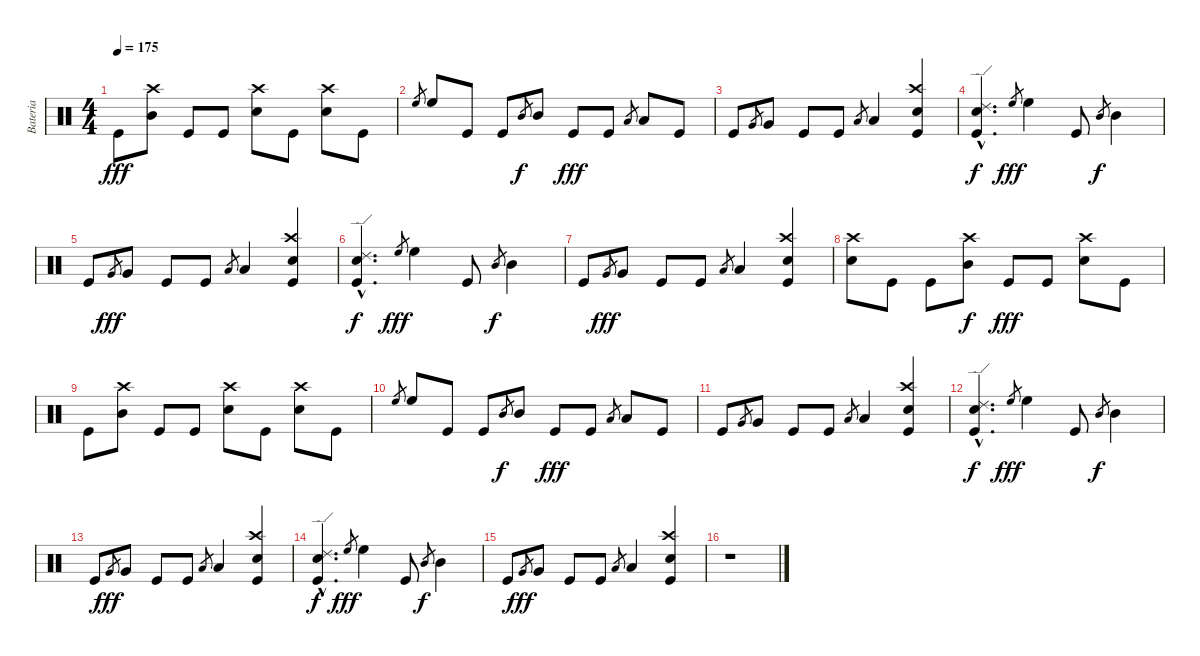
\track ("Bateria" "Bateria") {instrument percussion}
\staff {score}
\articulation defaults
\ts (4 4)
\tempo 175
\clef neutral
\ks c "Kick (hit)".8{dy fff}
("Crash high (hit)" "Mid Tom (hit)").8 "Kick (hit)".8 "Kick (hit)".8 ("Crash high (hit)" "Electric Snare (hit)").8 "Kick (hit)".8 ("Crash high (hit)" "Electric Snare (hit)").8 "Kick (hit)".8 |
"High Floor Tom (hit)".8{gr} "High Floor Tom (hit)".8 "Kick (hit)".8 "Kick (hit)".8 "Mid Tom (hit)".8{gr dy f} "Mid Tom (hit)".8 "Kick (hit)".8{dy fff} "Kick (hit)".8 "Low Tom (hit)".8{gr} "Low Tom (hit)".8 "Kick (hit)".8 |
"Kick (hit)".8 "Very Low Tom (hit)".8{gr} "Very Low Tom (hit)".8 "Kick (hit)".8 "Kick (hit)".8 "Low Floor Tom (hit)".8{gr} "Low Floor Tom (hit)".4 ("Crash high (hit)" "Electric Snare (hit)" "Kick (hit)").4 |
("Ride (edge) 2"{hac} "Electric Snare (hit)"{hac} "Kick (hit)"{hac}).4{d dy f} "High Floor Tom (hit)".8{gr dy fff} "High Floor Tom (hit)".4 "Kick (hit)".8 "Mid Tom (hit)".8{gr dy f} "Mid Tom (hit)".4 |
"Kick (hit)".8 "Very Low Tom (hit)".8{gr dy fff} "Very Low Tom (hit)".8 "Kick (hit)".8 "Kick (hit)".8 "Low Floor Tom (hit)".8{gr} "Low Floor Tom (hit)".4 ("Crash high (hit)" "Electric Snare (hit)" "Kick (hit)").4 |
("Ride (edge) 2"{hac} "Electric Snare (hit)"{hac} "Kick (hit)"{hac}).4{d dy f} "High Floor Tom (hit)".8{gr dy fff} "High Floor Tom (hit)".4 "Kick (hit)".8 "Mid Tom (hit)".8{gr dy f} "Mid Tom (hit)".4 |
"Kick (hit)".8 "Very Low Tom (hit)".8{gr dy fff} "Very Low Tom (hit)".8 "Kick (hit)".8 "Kick (hit)".8 "Low Floor Tom (hit)".8{gr} "Low Floor Tom (hit)".4 ("Crash high (hit)" "Electric Snare (hit)" "Kick (hit)").4 |
("Crash high (hit)" "Electric Snare (hit)").8 "Kick (hit)".8 "Kick (hit)".8 ("Crash high (hit)" "Mid Tom (hit)").8{dy f} "Kick (hit)".8{dy fff} "Kick (hit)".8 ("Crash high (hit)" "Electric Snare (hit)").8 "Kick (hit)".8 |
"Kick (hit)".8 ("Crash high (hit)" "Mid Tom (hit)").8 "Kick (hit)".8 "Kick (hit)".8 ("Crash high (hit)" "Electric Snare (hit)").8 "Kick (hit)".8 ("Crash high (hit)" "Electric Snare (hit)").8 "Kick (hit)".8 |
"High Floor Tom (hit)".8{gr} "High Floor Tom (hit)".8 "Kick (hit)".8 "Kick (hit)".8 "Mid Tom (hit)".8{gr dy f} "Mid Tom (hit)".8 "Kick (hit)".8{dy fff} "Kick (hit)".8 "Low Tom (hit)".8{gr} "Low Tom (hit)".8 "Kick (hit)".8 |
"Kick (hit)".8 "Very Low Tom (hit)".8{gr} "Very Low Tom (hit)".8 "Kick (hit)".8 "Kick (hit)".8 "Low Floor Tom (hit)".8{gr} "Low Floor Tom (hit)".4 ("Crash high (hit)" "Electric Snare (hit)" "Kick (hit)").4 |
("Ride (edge) 2"{hac} "Electric Snare (hit)"{hac} "Kick (hit)"{hac}).4{d dy f} "High Floor Tom (hit)".8{gr dy fff} "High Floor Tom (hit)".4 "Kick (hit)".8 "Mid Tom (hit)".8{gr dy f} "Mid Tom (hit)".4 |
"Kick (hit)".8 "Very Low Tom (hit)".8{gr dy fff} "Very Low Tom (hit)".8 "Kick (hit)".8 "Kick (hit)".8 "Low Floor Tom (hit)".8{gr} "Low Floor Tom (hit)".4 ("Crash high (hit)" "Electric Snare (hit)" "Kick (hit)").4 |
("Ride (edge) 2"{hac} "Electric Snare (hit)"{hac} "Kick (hit)"{hac}).4{d dy f} "High Floor Tom (hit)".8{gr dy fff} "High Floor Tom (hit)".4 "Kick (hit)".8 "Mid Tom (hit)".8{gr dy f} "Mid Tom (hit)".4 |
"Kick (hit)".8 "Very Low Tom (hit)".8{gr dy fff} "Very Low Tom (hit)".8 "Kick (hit)".8 "Kick (hit)".8 "Low Floor Tom (hit)".8{gr} "Low Floor Tom (hit)".4 ("Crash high (hit)" "Electric Snare (hit)" "Kick (hit)").4 |
r.1
